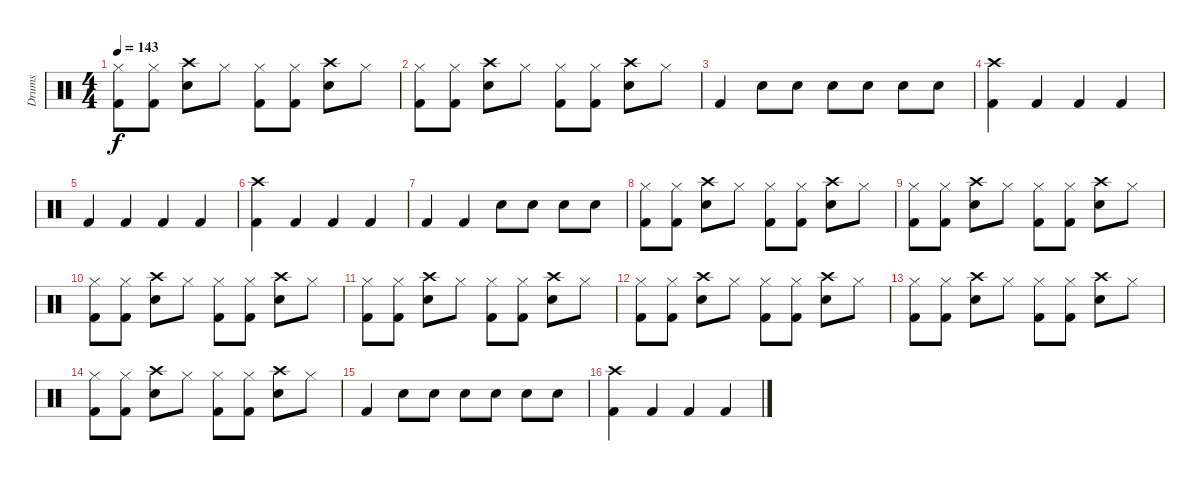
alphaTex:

\track ("Drums" "Drums") {instrument percussion}
\staff {score}
\articulation defaults
\ts (4 4)
\tempo 143
\clef neutral
\ks c
("Hi-Hat (closed)" "Kick (hit) 2").8{dy f} ("Hi-Hat (closed)" "Kick (hit) 2").8 ("Crash high (hit)" "Electric Snare (hit)").8 "Hi-Hat (closed)".8 ("Hi-Hat (closed)" "Kick (hit) 2").8 ("Hi-Hat (closed)" "Kick (hit) 2").8 ("Crash high (hit)" "Electric Snare (hit)").8 "Hi-Hat (closed)".8 |
("Hi-Hat (closed)" "Kick (hit) 2").8 ("Hi-Hat (closed)" "Kick (hit) 2").8 ("Crash high (hit)" "Electric Snare (hit)").8 "Hi-Hat (closed)".8 ("Hi-Hat (closed)" "Kick (hit) 2").8 ("Hi-Hat (closed)" "Kick (hit) 2").8 ("Crash high (hit)" "Electric Snare (hit)").8 "Hi-Hat (closed)".8 |
"Kick (hit) 2".4 "Snare (hit) 2".8 "Snare (hit) 2".8 "Snare (hit) 2".8 "Electric Snare (hit)".8 "Electric Snare (hit)".8 "Electric Snare (hit)".8 |
("Crash high (hit)" "Kick (hit) 2").4 "Kick (hit) 2".4 "Kick (hit) 2".4 "Kick (hit) 2".4 |
"Kick (hit) 2".4 "Kick (hit) 2".4 "Kick (hit) 2".4 "Kick (hit) 2".4 |
("Crash high (hit)" "Kick (hit) 2").4 "Kick (hit) 2".4 "Kick (hit) 2".4 "Kick (hit) 2".4 |
"Kick (hit) 2".4 "Kick (hit) 2".4 "Snare (hit) 2".8 "Snare (hit) 2".8 "Electric Snare (hit)".8 "Electric Snare (hit)".8 |
("Hi-Hat (closed)" "Kick (hit) 2").8 ("Hi-Hat (closed)" "Kick (hit) 2").8 ("Crash high (hit)" "Electric Snare (hit)").8 "Hi-Hat (closed)".8 ("Hi-Hat (closed)" "Kick (hit) 2").8 ("Hi-Hat (closed)" "Kick (hit) 2").8 ("Crash high (hit)" "Electric Snare (hit)").8 "Hi-Hat (closed)".8 |
("Hi-Hat (closed)" "Kick (hit) 2").8 ("Hi-Hat (closed)" "Kick (hit) 2").8 ("Crash high (hit)" "Electric Snare (hit)").8 "Hi-Hat (closed)".8 ("Hi-Hat (closed)" "Kick (hit) 2").8 ("Hi-Hat (closed)" "Kick (hit) 2").8 ("Crash high (hit)" "Electric Snare (hit)").8 "Hi-Hat (closed)".8 |
("Hi-Hat (closed)" "Kick (hit) 2").8 ("Hi-Hat (closed)" "Kick (hit) 2").8 ("Crash high (hit)" "Electric Snare (hit)").8 "Hi-Hat (closed)".8 ("Hi-Hat (closed)" "Kick (hit) 2").8 ("Hi-Hat (closed)" "Kick (hit) 2").8 ("Crash high (hit)" "Electric Snare (hit)").8 "Hi-Hat (closed)".8 |
("Hi-Hat (closed)" "Kick (hit) 2").8 ("Hi-Hat (closed)" "Kick (hit) 2").8 ("Crash high (hit)" "Electric Snare (hit)").8 "Hi-Hat (closed)".8 ("Hi-Hat (closed)" "Kick (hit) 2").8 ("Hi-Hat (closed)" "Kick (hit) 2").8 ("Crash high (hit)" "Electric Snare (hit)").8 "Hi-Hat (closed)".8 |
("Hi-Hat (closed)" "Kick (hit) 2").8 ("Hi-Hat (closed)" "Kick (hit) 2").8 ("Crash high (hit)" "Electric Snare (hit)").8 "Hi-Hat (closed)".8 ("Hi-Hat (closed)" "Kick (hit) 2").8 ("Hi-Hat (closed)" "Kick (hit) 2").8 ("Crash high (hit)" "Electric Snare (hit)").8 "Hi-Hat (closed)".8 |
("Hi-Hat (closed)" "Kick (hit) 2").8 ("Hi-Hat (closed)" "Kick (hit) 2").8 ("Crash high (hit)" "Electric Snare (hit)").8 "Hi-Hat (closed)".8 ("Hi-Hat (closed)" "Kick (hit) 2").8 ("Hi-Hat (closed)" "Kick (hit) 2").8 ("Crash high (hit)" "Electric Snare (hit)").8 "Hi-Hat (closed)".8 |
("Hi-Hat (closed)" "Kick (hit) 2").8 ("Hi-Hat (closed)" "Kick (hit) 2").8 ("Crash high (hit)" "Electric Snare (hit)").8 "Hi-Hat (closed)".8 ("Hi-Hat (closed)" "Kick (hit) 2").8 ("Hi-Hat (closed)" "Kick (hit) 2").8 ("Crash high (hit)" "Electric Snare (hit)").8 "Hi-Hat (closed)".8 |
"Kick (hit) 2".4 "Snare (hit) 2".8 "Snare (hit) 2".8 "Snare (hit) 2".8 "Electric Snare (hit)".8 "Electric Snare (hit)".8 "Electric Snare (hit)".8 |
("Crash high (hit)" "Kick (hit) 2").4 "Kick (hit) 2".4 "Kick (hit) 2".4 "Kick (hit) 2".4
